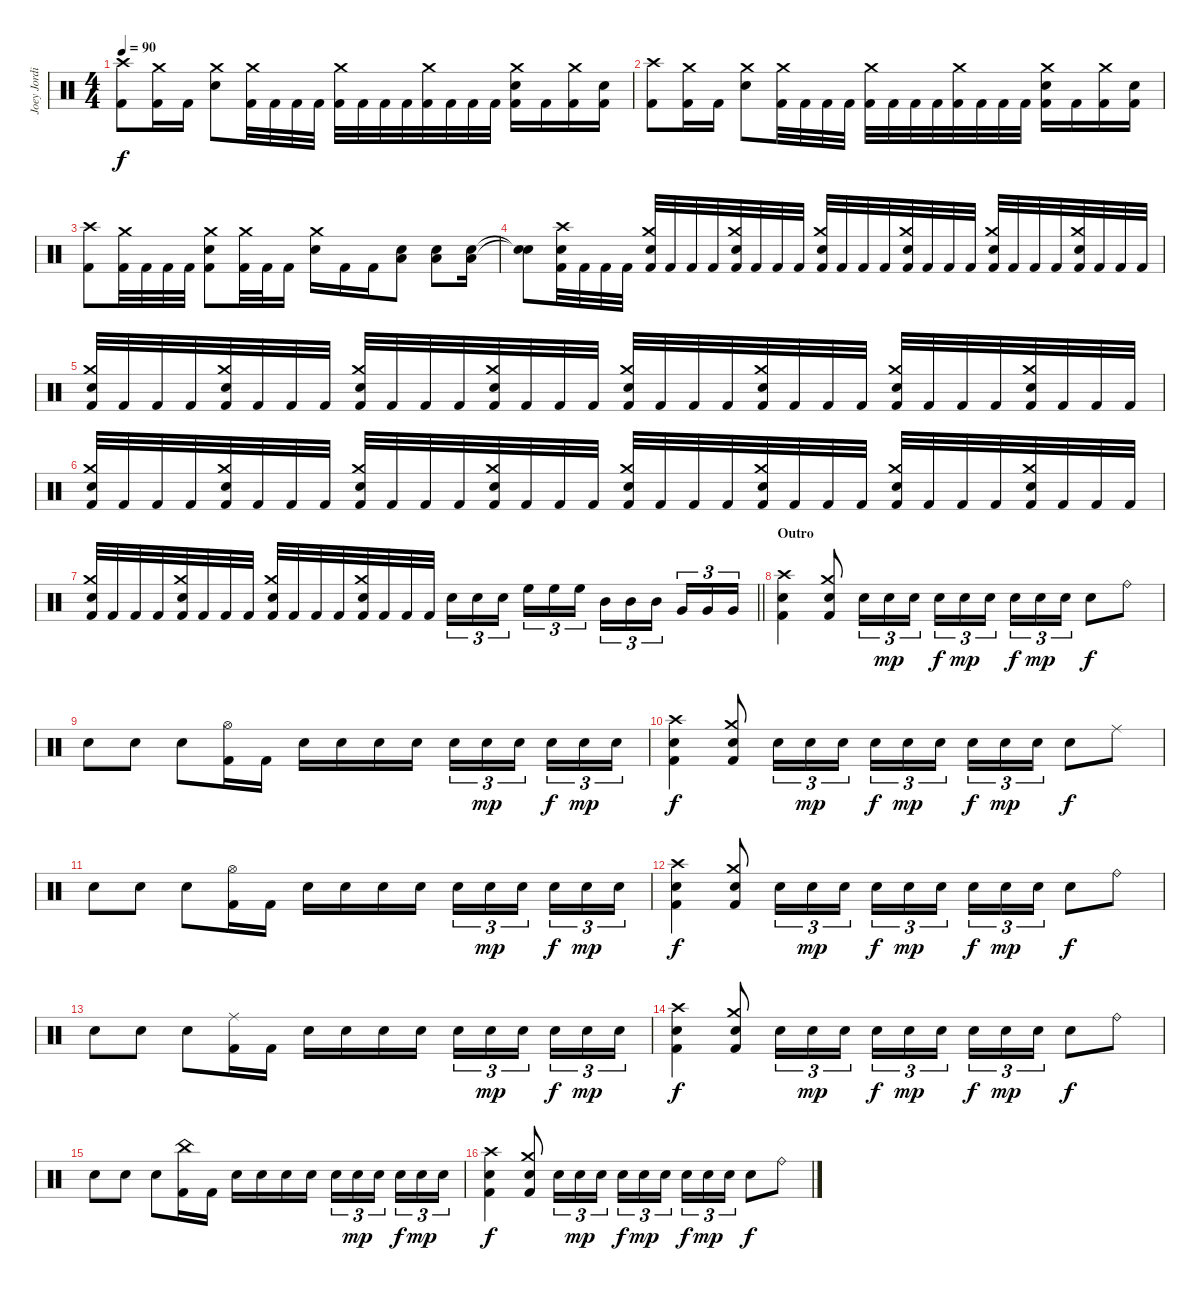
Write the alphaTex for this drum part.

\track ("Joey Jordison" "Joey Jordi") {instrument percussion}
\staff {score}
\articulation defaults
\ts (4 4)
\tempo 90
\clef neutral
\ks c
("Crash high (hit)" "Kick (hit) 2").8{dy f} ("Crash medium (hit)" "Kick (hit) 2").16 "Kick (hit) 2".16 ("Crash medium (hit)" "Electric Snare (hit)").8 ("Crash medium (hit)" "Kick (hit) 2").32 "Kick (hit) 2".32 "Kick (hit) 2".32 "Kick (hit) 2".32 ("Crash medium (hit)" "Kick (hit) 2").32 "Kick (hit) 2".32 "Kick (hit) 2".32 "Kick (hit) 2".32 ("Crash medium (hit)" "Kick (hit) 2").32 "Kick (hit) 2".32 "Kick (hit) 2".32 "Kick (hit) 2".32 ("Crash medium (hit)" "Electric Snare (hit)" "Kick (hit) 2").16 "Kick (hit) 2".16 ("Crash medium (hit)" "Kick (hit) 2").16 ("Electric Snare (hit)" "Kick (hit) 2").16 |
("Crash high (hit)" "Kick (hit) 2").8 ("Crash medium (hit)" "Kick (hit) 2").16 "Kick (hit) 2".16 ("Crash medium (hit)" "Electric Snare (hit)").8 ("Crash medium (hit)" "Kick (hit) 2").32 "Kick (hit) 2".32 "Kick (hit) 2".32 "Kick (hit) 2".32 ("Crash medium (hit)" "Kick (hit) 2").32 "Kick (hit) 2".32 "Kick (hit) 2".32 "Kick (hit) 2".32 ("Crash medium (hit)" "Kick (hit) 2").32 "Kick (hit) 2".32 "Kick (hit) 2".32 "Kick (hit) 2".32 ("Crash medium (hit)" "Electric Snare (hit)" "Kick (hit) 2").16 "Kick (hit) 2".16 ("Crash medium (hit)" "Kick (hit) 2").16 ("Electric Snare (hit)" "Kick (hit) 2").16 |
("Crash high (hit)" "Kick (hit) 2").8 ("Crash medium (hit)" "Kick (hit) 2").32 "Kick (hit) 2".32 "Kick (hit) 2".32 "Kick (hit) 2".32 ("Crash medium (hit)" "Electric Snare (hit)" "Kick (hit) 2").8 ("Crash medium (hit)" "Kick (hit) 2").32 "Kick (hit) 2".32 "Kick (hit) 2".16 ("Crash medium (hit)" "Electric Snare (hit)").16 "Kick (hit) 2".16 "Kick (hit) 2".16 ("Low Floor Tom (hit)" "Electric Snare (hit)").8 ("Low Floor Tom (hit)" "Electric Snare (hit)").8 ("Low Floor Tom (hit)" "Electric Snare (hit)").16 |
("Snare (hit)"{t} "Snare (hit)"{t}).8 ("Crash high (hit)" "Electric Snare (hit)" "Kick (hit) 2").32 "Kick (hit) 2".32 "Kick (hit) 2".32 "Kick (hit) 2".32 ("Crash medium (hit)" "Electric Snare (hit)" "Kick (hit) 2").32 "Kick (hit) 2".32 "Kick (hit) 2".32 "Kick (hit) 2".32 ("Crash medium (hit)" "Electric Snare (hit)" "Kick (hit) 2").32 "Kick (hit) 2".32 "Kick (hit) 2".32 "Kick (hit) 2".32 ("Crash medium (hit)" "Electric Snare (hit)" "Kick (hit) 2").32 "Kick (hit) 2".32 "Kick (hit) 2".32 "Kick (hit) 2".32 ("Crash medium (hit)" "Electric Snare (hit)" "Kick (hit) 2").32 "Kick (hit) 2".32 "Kick (hit) 2".32 "Kick (hit) 2".32 ("Crash medium (hit)" "Electric Snare (hit)" "Kick (hit) 2").32 "Kick (hit) 2".32 "Kick (hit) 2".32 "Kick (hit) 2".32 ("Crash medium (hit)" "Electric Snare (hit)" "Kick (hit) 2").32 "Kick (hit) 2".32 "Kick (hit) 2".32 "Kick (hit) 2".32 |
("Crash medium (hit)" "Electric Snare (hit)" "Kick (hit) 2").32 "Kick (hit) 2".32 "Kick (hit) 2".32 "Kick (hit) 2".32 ("Crash medium (hit)" "Electric Snare (hit)" "Kick (hit) 2").32 "Kick (hit) 2".32 "Kick (hit) 2".32 "Kick (hit) 2".32 ("Crash medium (hit)" "Electric Snare (hit)" "Kick (hit) 2").32 "Kick (hit) 2".32 "Kick (hit) 2".32 "Kick (hit) 2".32 ("Crash medium (hit)" "Electric Snare (hit)" "Kick (hit) 2").32 "Kick (hit) 2".32 "Kick (hit) 2".32 "Kick (hit) 2".32 ("Crash medium (hit)" "Electric Snare (hit)" "Kick (hit) 2").32 "Kick (hit) 2".32 "Kick (hit) 2".32 "Kick (hit) 2".32 ("Crash medium (hit)" "Electric Snare (hit)" "Kick (hit) 2").32 "Kick (hit) 2".32 "Kick (hit) 2".32 "Kick (hit) 2".32 ("Crash medium (hit)" "Electric Snare (hit)" "Kick (hit) 2").32 "Kick (hit) 2".32 "Kick (hit) 2".32 "Kick (hit) 2".32 ("Crash medium (hit)" "Electric Snare (hit)" "Kick (hit) 2").32 "Kick (hit) 2".32 "Kick (hit) 2".32 "Kick (hit) 2".32 |
("Crash medium (hit)" "Electric Snare (hit)" "Kick (hit) 2").32 "Kick (hit) 2".32 "Kick (hit) 2".32 "Kick (hit) 2".32 ("Crash medium (hit)" "Electric Snare (hit)" "Kick (hit) 2").32 "Kick (hit) 2".32 "Kick (hit) 2".32 "Kick (hit) 2".32 ("Crash medium (hit)" "Electric Snare (hit)" "Kick (hit) 2").32 "Kick (hit) 2".32 "Kick (hit) 2".32 "Kick (hit) 2".32 ("Crash medium (hit)" "Electric Snare (hit)" "Kick (hit) 2").32 "Kick (hit) 2".32 "Kick (hit) 2".32 "Kick (hit) 2".32 ("Crash medium (hit)" "Electric Snare (hit)" "Kick (hit) 2").32 "Kick (hit) 2".32 "Kick (hit) 2".32 "Kick (hit) 2".32 ("Crash medium (hit)" "Electric Snare (hit)" "Kick (hit) 2").32 "Kick (hit) 2".32 "Kick (hit) 2".32 "Kick (hit) 2".32 ("Crash medium (hit)" "Electric Snare (hit)" "Kick (hit) 2").32 "Kick (hit) 2".32 "Kick (hit) 2".32 "Kick (hit) 2".32 ("Crash medium (hit)" "Electric Snare (hit)" "Kick (hit) 2").32 "Kick (hit) 2".32 "Kick (hit) 2".32 "Kick (hit) 2".32 |
\barLineRight lightlight
("Crash medium (hit)" "Electric Snare (hit)" "Kick (hit) 2").32 "Kick (hit) 2".32 "Kick (hit) 2".32 "Kick (hit) 2".32 ("Crash medium (hit)" "Electric Snare (hit)" "Kick (hit) 2").32 "Kick (hit) 2".32 "Kick (hit) 2".32 "Kick (hit) 2".32 ("Crash medium (hit)" "Electric Snare (hit)" "Kick (hit) 2").32 "Kick (hit) 2".32 "Kick (hit) 2".32 "Kick (hit) 2".32 ("Crash medium (hit)" "Electric Snare (hit)" "Kick (hit) 2").32 "Kick (hit) 2".32 "Kick (hit) 2".32 "Kick (hit) 2".32 "Electric Snare (hit)".16{tu (3 2)} "Electric Snare (hit)".16{tu (3 2)} "Electric Snare (hit)".16{tu (3 2) beam splitsecondary} "High Floor Tom (hit)".16{tu (3 2)} "High Floor Tom (hit)".16{tu (3 2)} "High Floor Tom (hit)".16{tu (3 2)} "Mid Tom (hit)".16{tu (3 2)} "Mid Tom (hit)".16{tu (3 2)} "Mid Tom (hit)".16{tu (3 2) beam splitsecondary} "Very Low Tom (hit)".16{tu (3 2)} "Very Low Tom (hit)".16{tu (3 2)} "Very Low Tom (hit)".16{tu (3 2)} |
\section ("" "Outro")
("Crash high (hit)" "Electric Snare (hit)" "Kick (hit) 2").4 ("Crash medium (hit)" "Electric Snare (hit)" "Kick (hit) 2").8 "Electric Snare (hit)".16{tu (3 2)} "Electric Snare (hit)".16{tu (3 2) dy mp} "Electric Snare (hit)".16{tu (3 2)} "Electric Snare (hit)".16{tu (3 2) dy f} "Electric Snare (hit)".16{tu (3 2) dy mp} "Electric Snare (hit)".16{tu (3 2) beam splitsecondary} "Electric Snare (hit)".16{tu (3 2) dy f} "Electric Snare (hit)".16{tu (3 2) dy mp} "Electric Snare (hit)".16{tu (3 2)} "Electric Snare (hit)".8{dy f} "Ride (bell)".8 |
"Electric Snare (hit)".8 "Electric Snare (hit)".8 "Electric Snare (hit)".8 ("Hi-Hat (open)" "Kick (hit) 2").16 "Kick (hit) 2".16 "Electric Snare (hit)".16 "Electric Snare (hit)".16 "Electric Snare (hit)".16 "Electric Snare (hit)".16 "Electric Snare (hit)".16{tu (3 2)} "Electric Snare (hit)".16{tu (3 2) dy mp} "Electric Snare (hit)".16{tu (3 2) beam splitsecondary} "Electric Snare (hit)".16{tu (3 2) dy f} "Electric Snare (hit)".16{tu (3 2) dy mp} "Electric Snare (hit)".16{tu (3 2)} |
("Crash high (hit)" "Electric Snare (hit)" "Kick (hit) 2").4{dy f} ("Crash medium (hit)" "Electric Snare (hit)" "Kick (hit) 2").8 "Electric Snare (hit)".16{tu (3 2)} "Electric Snare (hit)".16{tu (3 2) dy mp} "Electric Snare (hit)".16{tu (3 2)} "Electric Snare (hit)".16{tu (3 2) dy f} "Electric Snare (hit)".16{tu (3 2) dy mp} "Electric Snare (hit)".16{tu (3 2) beam splitsecondary} "Electric Snare (hit)".16{tu (3 2) dy f} "Electric Snare (hit)".16{tu (3 2) dy mp} "Electric Snare (hit)".16{tu (3 2)} "Electric Snare (hit)".8{dy f} "Ride (middle)".8 |
"Electric Snare (hit)".8 "Electric Snare (hit)".8 "Electric Snare (hit)".8 ("Hi-Hat (open)" "Kick (hit) 2").16 "Kick (hit) 2".16 "Electric Snare (hit)".16 "Electric Snare (hit)".16 "Electric Snare (hit)".16 "Electric Snare (hit)".16 "Electric Snare (hit)".16{tu (3 2)} "Electric Snare (hit)".16{tu (3 2) dy mp} "Electric Snare (hit)".16{tu (3 2) beam splitsecondary} "Electric Snare (hit)".16{tu (3 2) dy f} "Electric Snare (hit)".16{tu (3 2) dy mp} "Electric Snare (hit)".16{tu (3 2)} |
("Crash high (hit)" "Electric Snare (hit)" "Kick (hit) 2").4{dy f} ("Crash medium (hit)" "Electric Snare (hit)" "Kick (hit) 2").8 "Electric Snare (hit)".16{tu (3 2)} "Electric Snare (hit)".16{tu (3 2) dy mp} "Electric Snare (hit)".16{tu (3 2)} "Electric Snare (hit)".16{tu (3 2) dy f} "Electric Snare (hit)".16{tu (3 2) dy mp} "Electric Snare (hit)".16{tu (3 2) beam splitsecondary} "Electric Snare (hit)".16{tu (3 2) dy f} "Electric Snare (hit)".16{tu (3 2) dy mp} "Electric Snare (hit)".16{tu (3 2)} "Electric Snare (hit)".8{dy f} "Ride (bell)".8 |
"Electric Snare (hit)".8 "Electric Snare (hit)".8 "Electric Snare (hit)".8 ("Ride (middle)" "Kick (hit) 2").16 "Kick (hit) 2".16 "Electric Snare (hit)".16 "Electric Snare (hit)".16 "Electric Snare (hit)".16 "Electric Snare (hit)".16 "Electric Snare (hit)".16{tu (3 2)} "Electric Snare (hit)".16{tu (3 2) dy mp} "Electric Snare (hit)".16{tu (3 2) beam splitsecondary} "Electric Snare (hit)".16{tu (3 2) dy f} "Electric Snare (hit)".16{tu (3 2) dy mp} "Electric Snare (hit)".16{tu (3 2)} |
("Crash high (hit)" "Electric Snare (hit)" "Kick (hit) 2").4{dy f} ("Crash medium (hit)" "Electric Snare (hit)" "Kick (hit) 2").8 "Electric Snare (hit)".16{tu (3 2)} "Electric Snare (hit)".16{tu (3 2) dy mp} "Electric Snare (hit)".16{tu (3 2)} "Electric Snare (hit)".16{tu (3 2) dy f} "Electric Snare (hit)".16{tu (3 2) dy mp} "Electric Snare (hit)".16{tu (3 2) beam splitsecondary} "Electric Snare (hit)".16{tu (3 2) dy f} "Electric Snare (hit)".16{tu (3 2) dy mp} "Electric Snare (hit)".16{tu (3 2)} "Electric Snare (hit)".8{dy f} "Ride (bell)".8 |
"Electric Snare (hit)".8 "Electric Snare (hit)".8 "Electric Snare (hit)".8 ("China (hit)" "Kick (hit) 2").16 "Kick (hit) 2".16 "Electric Snare (hit)".16 "Electric Snare (hit)".16 "Electric Snare (hit)".16 "Electric Snare (hit)".16 "Electric Snare (hit)".16{tu (3 2)} "Electric Snare (hit)".16{tu (3 2) dy mp} "Electric Snare (hit)".16{tu (3 2) beam splitsecondary} "Electric Snare (hit)".16{tu (3 2) dy f} "Electric Snare (hit)".16{tu (3 2) dy mp} "Electric Snare (hit)".16{tu (3 2)} |
("Crash high (hit)" "Electric Snare (hit)" "Kick (hit) 2").4{dy f} ("Crash medium (hit)" "Electric Snare (hit)" "Kick (hit) 2").8 "Electric Snare (hit)".16{tu (3 2)} "Electric Snare (hit)".16{tu (3 2) dy mp} "Electric Snare (hit)".16{tu (3 2)} "Electric Snare (hit)".16{tu (3 2) dy f} "Electric Snare (hit)".16{tu (3 2) dy mp} "Electric Snare (hit)".16{tu (3 2) beam splitsecondary} "Electric Snare (hit)".16{tu (3 2) dy f} "Electric Snare (hit)".16{tu (3 2) dy mp} "Electric Snare (hit)".16{tu (3 2)} "Electric Snare (hit)".8{dy f} "Ride (bell)".8
